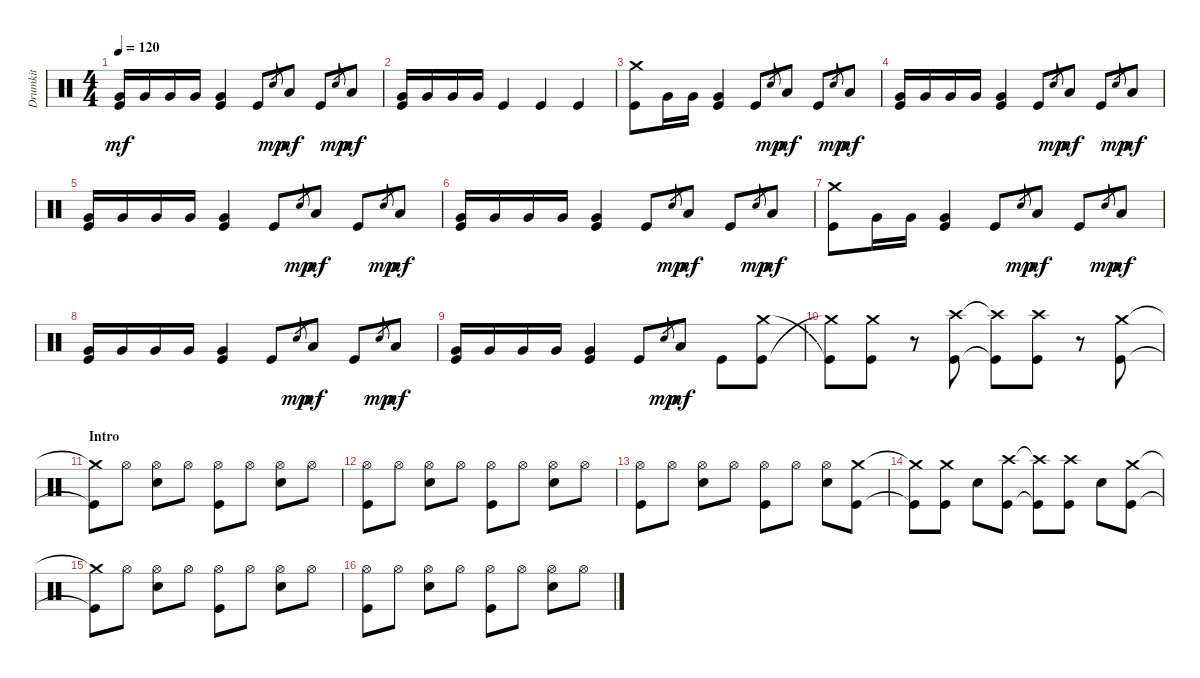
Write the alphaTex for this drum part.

\track ("Drumkit" "Drumkit") {instrument percussion}
\staff {score}
\articulation defaults
\ts (4 4)
\tempo 120
\clef neutral
\ks c
("Kick (hit)" "Very Low Tom (hit)").16{dy mf} "Very Low Tom (hit)".16 "Very Low Tom (hit)".16 "Very Low Tom (hit)".16 ("Very Low Tom (hit)" "Kick (hit)").4 "Kick (hit)".8 "Snare (hit)".8{gr dy mp} "Low Tom (hit)".8{dy mf} "Kick (hit)".8 "Snare (hit)".8{gr dy mp} "Low Tom (hit)".8{dy mf} |
("Kick (hit)" "Very Low Tom (hit)").16 "Very Low Tom (hit)".16 "Very Low Tom (hit)".16 "Very Low Tom (hit)".16 "Kick (hit)".4 "Kick (hit)".4 "Kick (hit)".4 |
("Kick (hit)" "Crash medium (hit)").8 "Very Low Tom (hit)".16 "Very Low Tom (hit)".16 ("Very Low Tom (hit)" "Kick (hit)").4 "Kick (hit)".8 "Snare (hit)".8{gr dy mp} "Low Tom (hit)".8{dy mf} "Kick (hit)".8 "Snare (hit)".8{gr dy mp} "Low Tom (hit)".8{dy mf} |
("Kick (hit)" "Very Low Tom (hit)").16 "Very Low Tom (hit)".16 "Very Low Tom (hit)".16 "Very Low Tom (hit)".16 ("Very Low Tom (hit)" "Kick (hit)").4 "Kick (hit)".8 "Snare (hit)".8{gr dy mp} "Low Tom (hit)".8{dy mf} "Kick (hit)".8 "Snare (hit)".8{gr dy mp} "Low Tom (hit)".8{dy mf} |
("Kick (hit)" "Very Low Tom (hit)").16 "Very Low Tom (hit)".16 "Very Low Tom (hit)".16 "Very Low Tom (hit)".16 ("Very Low Tom (hit)" "Kick (hit)").4 "Kick (hit)".8 "Snare (hit)".8{gr dy mp} "Low Tom (hit)".8{dy mf} "Kick (hit)".8 "Snare (hit)".8{gr dy mp} "Low Tom (hit)".8{dy mf} |
("Kick (hit)" "Very Low Tom (hit)").16 "Very Low Tom (hit)".16 "Very Low Tom (hit)".16 "Very Low Tom (hit)".16 ("Very Low Tom (hit)" "Kick (hit)").4 "Kick (hit)".8 "Snare (hit)".8{gr dy mp} "Low Tom (hit)".8{dy mf} "Kick (hit)".8 "Snare (hit)".8{gr dy mp} "Low Tom (hit)".8{dy mf} |
("Kick (hit)" "Crash medium (hit)").8 "Very Low Tom (hit)".16 "Very Low Tom (hit)".16 ("Very Low Tom (hit)" "Kick (hit)").4 "Kick (hit)".8 "Snare (hit)".8{gr dy mp} "Low Tom (hit)".8{dy mf} "Kick (hit)".8 "Snare (hit)".8{gr dy mp} "Low Tom (hit)".8{dy mf} |
("Kick (hit)" "Very Low Tom (hit)").16 "Very Low Tom (hit)".16 "Very Low Tom (hit)".16 "Very Low Tom (hit)".16 ("Very Low Tom (hit)" "Kick (hit)").4 "Kick (hit)".8 "Snare (hit)".8{gr dy mp} "Low Tom (hit)".8{dy mf} "Kick (hit)".8 "Snare (hit)".8{gr dy mp} "Low Tom (hit)".8{dy mf} |
("Kick (hit)" "Very Low Tom (hit)").16 "Very Low Tom (hit)".16 "Very Low Tom (hit)".16 "Very Low Tom (hit)".16 ("Very Low Tom (hit)" "Kick (hit)").4 "Kick (hit)".8 "Snare (hit)".8{gr dy mp} "Low Tom (hit)".8{dy mf} "Kick (hit)".8 ("Crash medium (hit)" "Kick (hit)").8 |
("Kick (hit)"{t} "Crash medium (hit)"{t}).8 ("Crash medium (hit)" "Kick (hit)").8 r.8 ("Kick (hit)" "Crash high (hit)").8 ("Kick (hit)"{t} "Crash high (hit)"{t}).8 ("Kick (hit)" "Crash high (hit)").8 r.8 ("Kick (hit)" "Crash medium (hit)").8 |
\section ("" "Intro")
("Kick (hit)"{t} "Crash medium (hit)"{t}).8 "Hi-Hat (open)".8 ("Snare (hit) 2" "Hi-Hat (open)").8 "Hi-Hat (open)".8 ("Hi-Hat (open)" "Kick (hit)").8 "Hi-Hat (open)".8 ("Hi-Hat (open)" "Snare (hit) 2").8 "Hi-Hat (open)".8 |
("Hi-Hat (open)" "Kick (hit)").8 "Hi-Hat (open)".8 ("Hi-Hat (open)" "Snare (hit) 2").8 "Hi-Hat (open)".8 ("Hi-Hat (open)" "Kick (hit)").8 "Hi-Hat (open)".8 ("Hi-Hat (open)" "Snare (hit) 2").8 "Hi-Hat (open)".8 |
("Hi-Hat (open)" "Kick (hit)").8 "Hi-Hat (open)".8 ("Hi-Hat (open)" "Snare (hit) 2").8 "Hi-Hat (open)".8 ("Hi-Hat (open)" "Kick (hit)").8 "Hi-Hat (open)".8 ("Hi-Hat (open)" "Snare (hit) 2").8 ("Kick (hit)" "Crash medium (hit)").8 |
("Kick (hit)"{t} "Crash medium (hit)"{t}).8 ("Crash medium (hit)" "Kick (hit)").8 "Snare (hit) 2".8 ("Kick (hit)" "Crash high (hit)").8 ("Kick (hit)"{t} "Crash high (hit)"{t}).8 ("Kick (hit)" "Crash high (hit)").8 "Snare (hit) 2".8 ("Kick (hit)" "Crash medium (hit)").8 |
("Kick (hit)"{t} "Crash medium (hit)"{t}).8 "Hi-Hat (open)".8 ("Snare (hit) 2" "Hi-Hat (open)").8 "Hi-Hat (open)".8 ("Hi-Hat (open)" "Kick (hit)").8 "Hi-Hat (open)".8 ("Hi-Hat (open)" "Snare (hit) 2").8 "Hi-Hat (open)".8 |
("Hi-Hat (open)" "Kick (hit)").8 "Hi-Hat (open)".8 ("Hi-Hat (open)" "Snare (hit) 2").8 "Hi-Hat (open)".8 ("Hi-Hat (open)" "Kick (hit)").8 "Hi-Hat (open)".8 ("Hi-Hat (open)" "Snare (hit) 2").8 "Hi-Hat (open)".8
